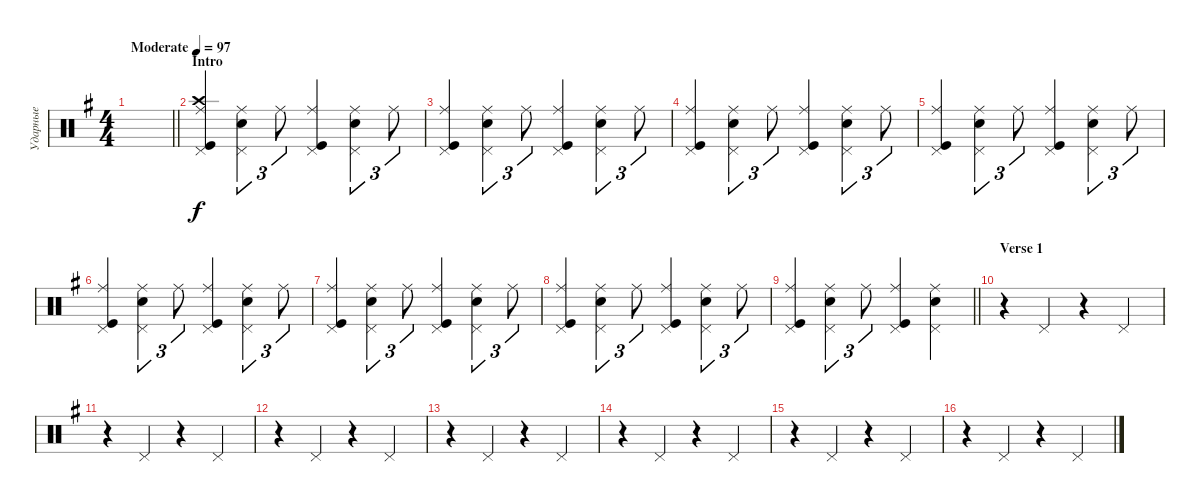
\track ("Ударные" "Ударные") {instrument percussion}
\staff {score}
\articulation defaults
\ts (4 4)
\tempo (97 "Moderate")
\clef neutral
\barLineRight lightlight
\ks eminor
|
\section ("" "Intro")
("Kick (hit)" "Ride (middle)" "Crash high (hit)" "Pedal Hi-Hat (hit)").4 ("Snare (hit) 2" "Pedal Hi-Hat (hit)" "Ride (middle)").4{tu (3 2) dy f} "Ride (middle)".8{tu (3 2)} ("Kick (hit)" "Pedal Hi-Hat (hit)" "Ride (middle)").4 ("Snare (hit) 2" "Ride (middle)" "Pedal Hi-Hat (hit)").4{tu (3 2)} "Ride (middle)".8{tu (3 2)} |
("Kick (hit)" "Ride (middle)" "Pedal Hi-Hat (hit)").4 ("Snare (hit) 2" "Ride (middle)" "Pedal Hi-Hat (hit)").4{tu (3 2)} "Ride (middle)".8{tu (3 2)} ("Kick (hit)" "Ride (middle)" "Pedal Hi-Hat (hit)").4 ("Snare (hit) 2" "Ride (middle)" "Pedal Hi-Hat (hit)").4{tu (3 2)} "Ride (middle)".8{tu (3 2)} |
("Kick (hit)" "Ride (middle)" "Pedal Hi-Hat (hit)").4 ("Snare (hit) 2" "Ride (middle)" "Pedal Hi-Hat (hit)").4{tu (3 2)} "Ride (middle)".8{tu (3 2)} ("Kick (hit)" "Ride (middle)" "Pedal Hi-Hat (hit)").4 ("Snare (hit) 2" "Ride (middle)" "Pedal Hi-Hat (hit)").4{tu (3 2)} "Ride (middle)".8{tu (3 2)} |
("Kick (hit)" "Ride (middle)" "Pedal Hi-Hat (hit)").4 ("Snare (hit) 2" "Ride (middle)" "Pedal Hi-Hat (hit)").4{tu (3 2)} "Ride (middle)".8{tu (3 2)} ("Kick (hit)" "Ride (middle)" "Pedal Hi-Hat (hit)").4 ("Snare (hit) 2" "Ride (middle)" "Pedal Hi-Hat (hit)").4{tu (3 2)} "Ride (middle)".8{tu (3 2)} |
("Kick (hit)" "Ride (middle)" "Pedal Hi-Hat (hit)").4 ("Snare (hit) 2" "Ride (middle)" "Pedal Hi-Hat (hit)").4{tu (3 2)} "Ride (middle)".8{tu (3 2)} ("Kick (hit)" "Ride (middle)" "Pedal Hi-Hat (hit)").4 ("Snare (hit) 2" "Ride (middle)" "Pedal Hi-Hat (hit)").4{tu (3 2)} "Ride (middle)".8{tu (3 2)} |
("Kick (hit)" "Ride (middle)" "Pedal Hi-Hat (hit)").4 ("Snare (hit) 2" "Ride (middle)" "Pedal Hi-Hat (hit)").4{tu (3 2)} "Ride (middle)".8{tu (3 2)} ("Kick (hit)" "Ride (middle)" "Pedal Hi-Hat (hit)").4 ("Snare (hit) 2" "Ride (middle)" "Pedal Hi-Hat (hit)").4{tu (3 2)} "Ride (middle)".8{tu (3 2)} |
("Kick (hit)" "Ride (middle)" "Pedal Hi-Hat (hit)").4 ("Snare (hit) 2" "Ride (middle)" "Pedal Hi-Hat (hit)").4{tu (3 2)} "Ride (middle)".8{tu (3 2)} ("Kick (hit)" "Ride (middle)" "Pedal Hi-Hat (hit)").4 ("Snare (hit) 2" "Ride (middle)" "Pedal Hi-Hat (hit)").4{tu (3 2)} "Ride (middle)".8{tu (3 2)} |
\barLineRight lightlight
("Kick (hit)" "Ride (middle)" "Pedal Hi-Hat (hit)").4 ("Snare (hit) 2" "Ride (middle)" "Pedal Hi-Hat (hit)").4{tu (3 2)} "Ride (middle)".8{tu (3 2)} ("Kick (hit)" "Ride (middle)" "Pedal Hi-Hat (hit)").4 ("Snare (hit) 2" "Ride (middle)" "Pedal Hi-Hat (hit)").4 |
\section ("" "Verse 1")
r.4 "Pedal Hi-Hat (hit)".4 r.4 "Pedal Hi-Hat (hit)".4 |
r.4 "Pedal Hi-Hat (hit)".4 r.4 "Pedal Hi-Hat (hit)".4 |
r.4 "Pedal Hi-Hat (hit)".4 r.4 "Pedal Hi-Hat (hit)".4 |
r.4 "Pedal Hi-Hat (hit)".4 r.4 "Pedal Hi-Hat (hit)".4 |
r.4 "Pedal Hi-Hat (hit)".4 r.4 "Pedal Hi-Hat (hit)".4 |
r.4 "Pedal Hi-Hat (hit)".4 r.4 "Pedal Hi-Hat (hit)".4 |
r.4 "Pedal Hi-Hat (hit)".4 r.4 "Pedal Hi-Hat (hit)".4
